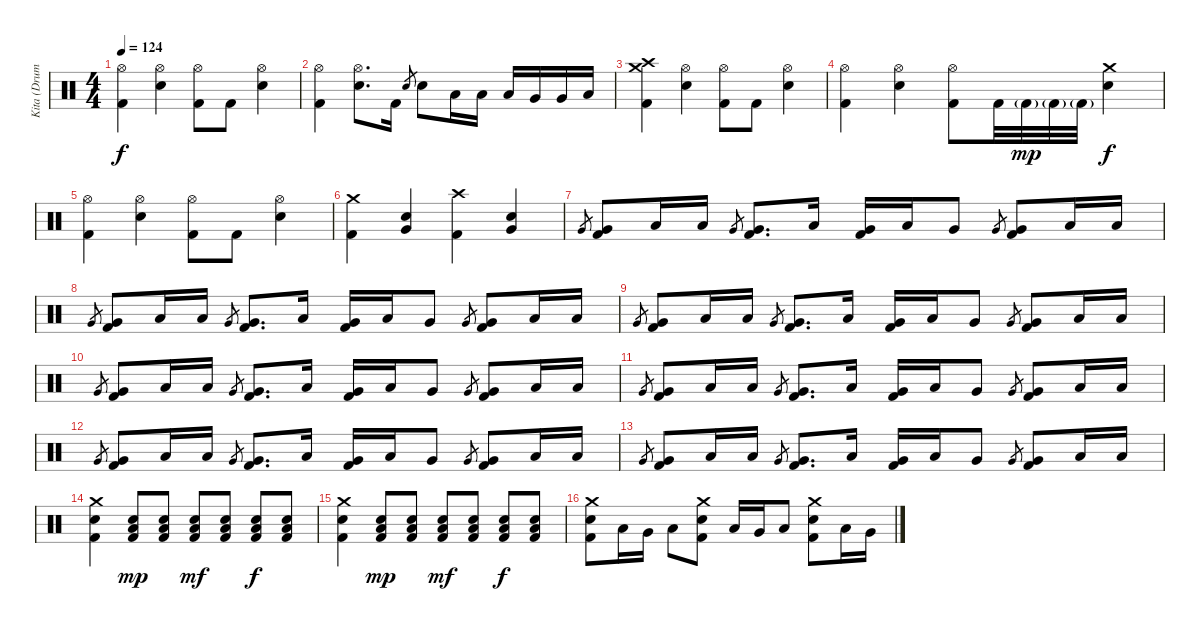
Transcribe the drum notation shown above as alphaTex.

\track ("Kita (Drums)" "Kita (Drum") {instrument percussion}
\staff {score}
\articulation defaults
\ts (4 4)
\tempo 124
\clef neutral
\ks c
("Hi-Hat (open)" "Kick (hit) 2").4{dy f} ("Hi-Hat (open)" "Electric Snare (hit)").4 ("Hi-Hat (open)" "Kick (hit) 2").8 "Kick (hit) 2".8 ("Hi-Hat (open)" "Electric Snare (hit)").4 |
("Hi-Hat (open)" "Kick (hit) 2").4 ("Hi-Hat (open)" "Electric Snare (hit)").8{d} "Kick (hit) 2".16 "Electric Snare (hit)".8{gr} "Electric Snare (hit)".8 "Low Tom (hit)".16 "Low Tom (hit)".16 "Low Tom (hit)".16 "Very Low Tom (hit)".16 "Very Low Tom (hit)".16 "Low Floor Tom (hit)".16 |
("Crash medium (hit)" "Crash high (hit)" "Kick (hit) 2").4 ("Hi-Hat (open)" "Electric Snare (hit)").4 ("Hi-Hat (open)" "Kick (hit) 2").8 "Kick (hit) 2".8 ("Hi-Hat (open)" "Electric Snare (hit)").4 |
("Hi-Hat (open)" "Kick (hit) 2").4 ("Hi-Hat (open)" "Electric Snare (hit)").4 ("Hi-Hat (open)" "Kick (hit) 2").8 "Kick (hit) 2".32 "Kick (hit) 2"{g}.32{dy mp} "Kick (hit) 2"{g}.32 "Kick (hit) 2"{g}.32 ("Crash medium (hit)" "Electric Snare (hit)").4{dy f} |
("Hi-Hat (open)" "Kick (hit) 2").4 ("Hi-Hat (open)" "Electric Snare (hit)").4 ("Hi-Hat (open)" "Kick (hit) 2").8 "Kick (hit) 2".8 ("Hi-Hat (open)" "Electric Snare (hit)").4 |
("Crash medium (hit)" "Kick (hit) 2").4 ("Very Low Tom (hit)" "Electric Snare (hit)").4 ("Crash high (hit)" "Kick (hit) 2").4 ("Very Low Tom (hit)" "Electric Snare (hit)").4 |
"Very Low Tom (hit)".8{gr} ("Very Low Tom (hit)" "Kick (hit) 2").8 "Low Floor Tom (hit)".16 "Low Floor Tom (hit)".16 "Very Low Tom (hit)".8{gr} ("Very Low Tom (hit)" "Kick (hit) 2").8{d} "Low Floor Tom (hit)".16 ("Very Low Tom (hit)" "Kick (hit) 2").16 "Low Floor Tom (hit)".16 "Very Low Tom (hit)".8 "Very Low Tom (hit)".8{gr} ("Very Low Tom (hit)" "Kick (hit) 2").8 "Low Floor Tom (hit)".16 "Low Floor Tom (hit)".16 |
"Very Low Tom (hit)".8{gr} ("Very Low Tom (hit)" "Kick (hit) 2").8 "Low Floor Tom (hit)".16 "Low Floor Tom (hit)".16 "Very Low Tom (hit)".8{gr} ("Very Low Tom (hit)" "Kick (hit) 2").8{d} "Low Floor Tom (hit)".16 ("Very Low Tom (hit)" "Kick (hit) 2").16 "Low Floor Tom (hit)".16 "Very Low Tom (hit)".8 "Very Low Tom (hit)".8{gr} ("Very Low Tom (hit)" "Kick (hit) 2").8 "Low Floor Tom (hit)".16 "Low Floor Tom (hit)".16 |
"Very Low Tom (hit)".8{gr} ("Very Low Tom (hit)" "Kick (hit) 2").8 "Low Floor Tom (hit)".16 "Low Floor Tom (hit)".16 "Very Low Tom (hit)".8{gr} ("Very Low Tom (hit)" "Kick (hit) 2").8{d} "Low Floor Tom (hit)".16 ("Very Low Tom (hit)" "Kick (hit) 2").16 "Low Floor Tom (hit)".16 "Very Low Tom (hit)".8 "Very Low Tom (hit)".8{gr} ("Very Low Tom (hit)" "Kick (hit) 2").8 "Low Floor Tom (hit)".16 "Low Floor Tom (hit)".16 |
"Very Low Tom (hit)".8{gr} ("Very Low Tom (hit)" "Kick (hit) 2").8 "Low Floor Tom (hit)".16 "Low Floor Tom (hit)".16 "Very Low Tom (hit)".8{gr} ("Very Low Tom (hit)" "Kick (hit) 2").8{d} "Low Floor Tom (hit)".16 ("Very Low Tom (hit)" "Kick (hit) 2").16 "Low Floor Tom (hit)".16 "Very Low Tom (hit)".8 "Very Low Tom (hit)".8{gr} ("Very Low Tom (hit)" "Kick (hit) 2").8 "Low Floor Tom (hit)".16 "Low Floor Tom (hit)".16 |
"Very Low Tom (hit)".8{gr} ("Very Low Tom (hit)" "Kick (hit) 2").8 "Low Floor Tom (hit)".16 "Low Floor Tom (hit)".16 "Very Low Tom (hit)".8{gr} ("Very Low Tom (hit)" "Kick (hit) 2").8{d} "Low Floor Tom (hit)".16 ("Very Low Tom (hit)" "Kick (hit) 2").16 "Low Floor Tom (hit)".16 "Very Low Tom (hit)".8 "Very Low Tom (hit)".8{gr} ("Very Low Tom (hit)" "Kick (hit) 2").8 "Low Floor Tom (hit)".16 "Low Floor Tom (hit)".16 |
"Very Low Tom (hit)".8{gr} ("Very Low Tom (hit)" "Kick (hit) 2").8 "Low Floor Tom (hit)".16 "Low Floor Tom (hit)".16 "Very Low Tom (hit)".8{gr} ("Very Low Tom (hit)" "Kick (hit) 2").8{d} "Low Floor Tom (hit)".16 ("Very Low Tom (hit)" "Kick (hit) 2").16 "Low Floor Tom (hit)".16 "Very Low Tom (hit)".8 "Very Low Tom (hit)".8{gr} ("Very Low Tom (hit)" "Kick (hit) 2").8 "Low Floor Tom (hit)".16 "Low Floor Tom (hit)".16 |
"Very Low Tom (hit)".8{gr} ("Very Low Tom (hit)" "Kick (hit) 2").8 "Low Floor Tom (hit)".16 "Low Floor Tom (hit)".16 "Very Low Tom (hit)".8{gr} ("Very Low Tom (hit)" "Kick (hit) 2").8{d} "Low Floor Tom (hit)".16 ("Very Low Tom (hit)" "Kick (hit) 2").16 "Low Floor Tom (hit)".16 "Very Low Tom (hit)".8 "Very Low Tom (hit)".8{gr} ("Very Low Tom (hit)" "Kick (hit) 2").8 "Low Floor Tom (hit)".16 "Low Floor Tom (hit)".16 |
("Crash medium (hit)" "Electric Snare (hit)" "Kick (hit) 2").4 ("Low Floor Tom (hit)" "Electric Snare (hit)" "Kick (hit) 2").8{dy mp} ("Low Floor Tom (hit)" "Electric Snare (hit)" "Kick (hit) 2").8 ("Low Floor Tom (hit)" "Electric Snare (hit)" "Kick (hit) 2").8{dy mf} ("Low Floor Tom (hit)" "Electric Snare (hit)" "Kick (hit) 2").8 ("Low Floor Tom (hit)" "Electric Snare (hit)" "Kick (hit) 2").8{dy f} ("Low Floor Tom (hit)" "Electric Snare (hit)" "Kick (hit) 2").8 |
("Crash medium (hit)" "Electric Snare (hit)" "Kick (hit) 2").4 ("Low Floor Tom (hit)" "Electric Snare (hit)" "Kick (hit) 2").8{dy mp} ("Low Floor Tom (hit)" "Electric Snare (hit)" "Kick (hit) 2").8 ("Low Floor Tom (hit)" "Electric Snare (hit)" "Kick (hit) 2").8{dy mf} ("Low Floor Tom (hit)" "Electric Snare (hit)" "Kick (hit) 2").8 ("Low Floor Tom (hit)" "Electric Snare (hit)" "Kick (hit) 2").8{dy f} ("Low Floor Tom (hit)" "Electric Snare (hit)" "Kick (hit) 2").8 |
("Crash medium (hit)" "Electric Snare (hit)" "Kick (hit) 2").8 "Low Floor Tom (hit)".16 "Very Low Tom (hit)".16 "Low Floor Tom (hit)".8 ("Crash medium (hit)" "Electric Snare (hit)" "Kick (hit) 2").8 "Low Floor Tom (hit)".16 "Very Low Tom (hit)".16 "Low Floor Tom (hit)".8 ("Crash medium (hit)" "Electric Snare (hit)" "Kick (hit) 2").8 "Low Floor Tom (hit)".16 "Very Low Tom (hit)".16
